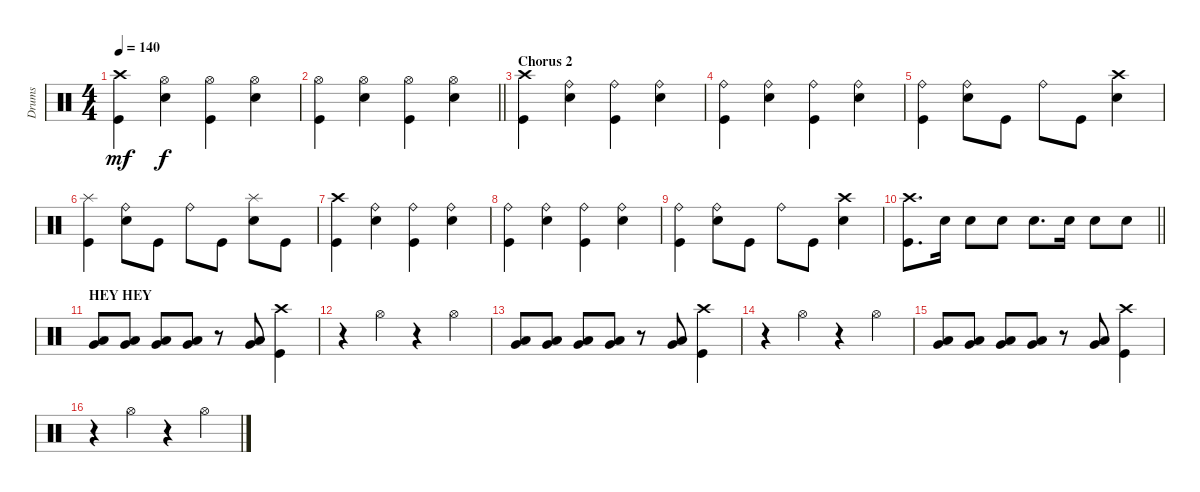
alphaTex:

\track ("Drums" "Drums") {instrument percussion}
\staff {score}
\articulation defaults
\ts (4 4)
\tempo 140
\clef neutral
\ks c
("Crash high (hit)" "Kick (hit)").4{dy mf} ("Hi-Hat (open)" "Electric Snare (hit)").4{dy f} ("Hi-Hat (open)" "Kick (hit)").4 ("Hi-Hat (open)" "Electric Snare (hit)").4 |
\barLineRight lightlight
("Hi-Hat (open)" "Kick (hit)").4 ("Hi-Hat (open)" "Electric Snare (hit)").4 ("Hi-Hat (open)" "Kick (hit)").4 ("Hi-Hat (open)" "Electric Snare (hit)").4 |
\section ("" "Chorus 2")
("Crash high (hit)" "Kick (hit)").4 ("Ride (bell)" "Electric Snare (hit)").4 ("Ride (bell)" "Kick (hit)").4 ("Ride (bell)" "Electric Snare (hit)").4 |
("Ride (bell)" "Kick (hit)").4 ("Ride (bell)" "Electric Snare (hit)").4 ("Ride (bell)" "Kick (hit)").4 ("Ride (bell)" "Electric Snare (hit)").4 |
("Ride (bell)" "Kick (hit)").4 ("Ride (bell)" "Electric Snare (hit)").8 "Kick (hit)".8 "Ride (bell)".8 "Kick (hit)".8 ("Crash high (hit)" "Electric Snare (hit)").4 |
("Splash (hit)" "Kick (hit)").4 ("Ride (bell)" "Electric Snare (hit)").8 "Kick (hit)".8 "Ride (bell)".8 "Kick (hit)".8 ("Splash (hit)" "Electric Snare (hit)").8 "Kick (hit)".8 |
("Crash high (hit)" "Kick (hit)").4 ("Ride (bell)" "Electric Snare (hit)").4 ("Ride (bell)" "Kick (hit)").4 ("Ride (bell)" "Electric Snare (hit)").4 |
("Ride (bell)" "Kick (hit)").4 ("Ride (bell)" "Electric Snare (hit)").4 ("Ride (bell)" "Kick (hit)").4 ("Ride (bell)" "Electric Snare (hit)").4 |
("Ride (bell)" "Kick (hit)").4 ("Ride (bell)" "Electric Snare (hit)").8 "Kick (hit)".8 "Ride (bell)".8 "Kick (hit)".8 ("Crash high (hit)" "Electric Snare (hit)").4 |
\barLineRight lightlight
("Crash high (hit)" "Kick (hit)").8{d} "Electric Snare (hit)".16 "Electric Snare (hit)".8 "Electric Snare (hit)".8 "Electric Snare (hit)".8{d} "Electric Snare (hit)".16 "Electric Snare (hit)".8 "Electric Snare (hit)".8 |
\section ("" "HEY HEY")
("Very Low Tom (hit)" "Low Floor Tom (hit)").8 ("Very Low Tom (hit)" "Low Floor Tom (hit)").8 ("Very Low Tom (hit)" "Low Floor Tom (hit)").8 ("Very Low Tom (hit)" "Low Floor Tom (hit)").8 r.8 ("Very Low Tom (hit)" "Low Floor Tom (hit)").8 ("Crash high (hit)" "Kick (hit)").4 |
r.4 "Hi-Hat (open)".4 r.4 "Hi-Hat (open)".4 |
("Very Low Tom (hit)" "Low Floor Tom (hit)").8 ("Very Low Tom (hit)" "Low Floor Tom (hit)").8 ("Very Low Tom (hit)" "Low Floor Tom (hit)").8 ("Very Low Tom (hit)" "Low Floor Tom (hit)").8 r.8 ("Very Low Tom (hit)" "Low Floor Tom (hit)").8 ("Crash high (hit)" "Kick (hit)").4 |
r.4 "Hi-Hat (open)".4 r.4 "Hi-Hat (open)".4 |
("Very Low Tom (hit)" "Low Floor Tom (hit)").8 ("Very Low Tom (hit)" "Low Floor Tom (hit)").8 ("Very Low Tom (hit)" "Low Floor Tom (hit)").8 ("Very Low Tom (hit)" "Low Floor Tom (hit)").8 r.8 ("Very Low Tom (hit)" "Low Floor Tom (hit)").8 ("Crash high (hit)" "Kick (hit)").4 |
r.4 "Hi-Hat (open)".4 r.4 "Hi-Hat (open)".4
